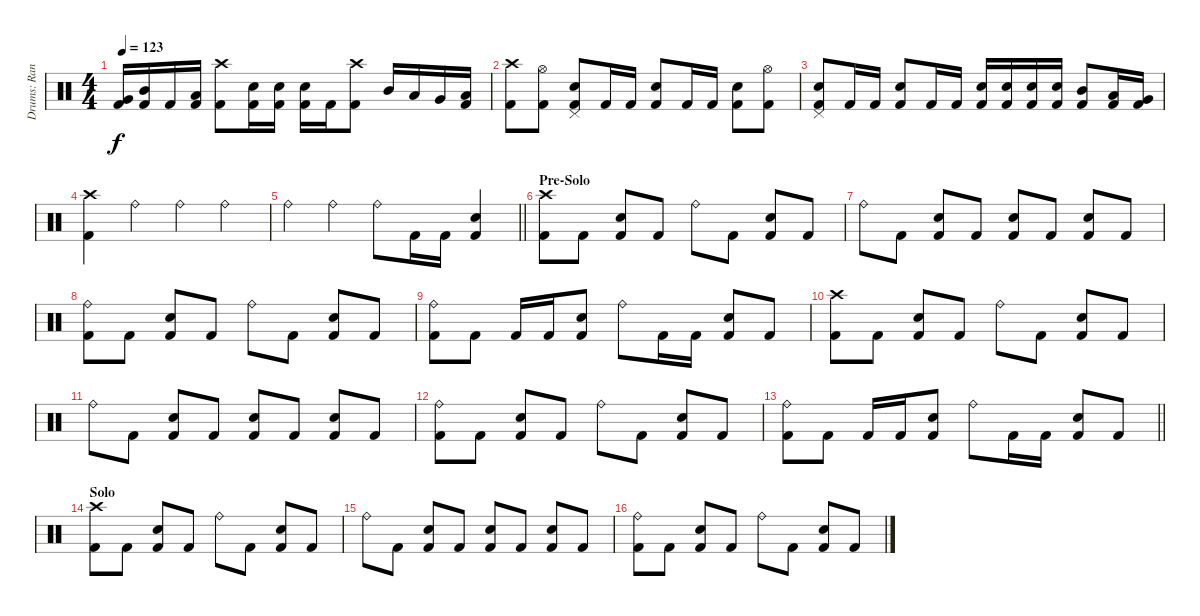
\track ("Drums: Randy" "Drums: Ran") {instrument percussion}
\staff {score}
\articulation defaults
\ts (4 4)
\tempo 123
\clef neutral
\ks c
("Very Low Tom (hit)" "Kick (hit) 2").16{dy f} ("Mid Tom (hit)" "Kick (hit) 2").16 "Kick (hit) 2".16 ("Low Tom (hit)" "Kick (hit) 2").16 ("Crash high (hit)" "Kick (hit) 2").8 ("Snare (hit) 2" "Kick (hit) 2").16 ("Snare (hit) 2" "Kick (hit) 2").16 ("Snare (hit) 2" "Kick (hit) 2").16 "Kick (hit) 2".16 ("Crash high (hit)" "Kick (hit) 2").8 "Mid Tom (hit)".16 "Low Tom (hit)".16 "Very Low Tom (hit)".16 ("Low Floor Tom (hit)" "Kick (hit) 2").16 |
("Crash high (hit)" "Kick (hit) 2").8 ("Hi-Hat (open)" "Kick (hit) 2").8 ("Pedal Hi-Hat (hit)" "Snare (hit) 2" "Kick (hit) 2").8 "Kick (hit) 2".16 "Kick (hit) 2".16 ("Snare (hit) 2" "Kick (hit) 2").8 "Kick (hit) 2".16 "Kick (hit) 2".16 ("Snare (hit) 2" "Kick (hit) 2").8 ("Hi-Hat (open)" "Kick (hit) 2").8 |
("Pedal Hi-Hat (hit)" "Snare (hit) 2" "Kick (hit) 2").8 "Kick (hit) 2".16 "Kick (hit) 2".16 ("Snare (hit) 2" "Kick (hit) 2").8 "Kick (hit) 2".16 "Kick (hit) 2".16 ("Snare (hit) 2" "Kick (hit) 2").16 ("Snare (hit) 2" "Kick (hit) 2").16 ("Snare (hit) 2" "Kick (hit) 2").16 ("Snare (hit) 2" "Kick (hit) 2").16 ("Mid Tom (hit)" "Kick (hit) 2").8 ("Low Tom (hit)" "Kick (hit) 2").16 ("Very Low Tom (hit)" "Kick (hit) 2").16 |
("Crash high (hit)" "Kick (hit) 2").4 "Ride (bell)".4 "Ride (bell)".4 "Ride (bell)".4 |
\barLineRight lightlight "Ride (bell)".4 "Ride (bell)".4 "Ride (bell)".8 "Kick (hit) 2".16 "Kick (hit) 2".16
("Snare (hit) 2" "Kick (hit) 2").4 |
\section ("" "Pre-Solo")
("Crash high (hit)" "Kick (hit) 2").8 "Kick (hit) 2".8 ("Snare (hit) 2" "Kick (hit) 2").8 "Kick (hit) 2".8 "Ride (bell)".8 "Kick (hit) 2".8 ("Snare (hit) 2" "Kick (hit) 2").8 "Kick (hit) 2".8 |
"Ride (bell)".8 "Kick (hit) 2".8 ("Snare (hit) 2" "Kick (hit) 2").8 "Kick (hit) 2".8 ("Snare (hit) 2" "Kick (hit) 2").8 "Kick (hit) 2".8 ("Snare (hit) 2" "Kick (hit) 2").8 "Kick (hit) 2".8 |
("Ride (bell)" "Kick (hit) 2").8 "Kick (hit) 2".8 ("Snare (hit) 2" "Kick (hit) 2").8 "Kick (hit) 2".8 "Ride (bell)".8 "Kick (hit) 2".8 ("Snare (hit) 2" "Kick (hit) 2").8 "Kick (hit) 2".8 |
("Ride (bell)" "Kick (hit) 2").8 "Kick (hit) 2".8 "Kick (hit) 2".16 "Kick (hit) 2".16 ("Snare (hit) 2" "Kick (hit) 2").8 "Ride (bell)".8 "Kick (hit) 2".16 "Kick (hit) 2".16 ("Snare (hit) 2" "Kick (hit) 2").8 "Kick (hit) 2".8 |
("Crash high (hit)" "Kick (hit) 2").8 "Kick (hit) 2".8 ("Snare (hit) 2" "Kick (hit) 2").8 "Kick (hit) 2".8 "Ride (bell)".8 "Kick (hit) 2".8 ("Snare (hit) 2" "Kick (hit) 2").8 "Kick (hit) 2".8 |
"Ride (bell)".8 "Kick (hit) 2".8 ("Snare (hit) 2" "Kick (hit) 2").8 "Kick (hit) 2".8 ("Snare (hit) 2" "Kick (hit) 2").8 "Kick (hit) 2".8 ("Snare (hit) 2" "Kick (hit) 2").8 "Kick (hit) 2".8 |
("Ride (bell)" "Kick (hit) 2").8 "Kick (hit) 2".8 ("Snare (hit) 2" "Kick (hit) 2").8 "Kick (hit) 2".8 "Ride (bell)".8 "Kick (hit) 2".8 ("Snare (hit) 2" "Kick (hit) 2").8 "Kick (hit) 2".8 |
\barLineRight lightlight
("Ride (bell)" "Kick (hit) 2").8 "Kick (hit) 2".8 "Kick (hit) 2".16 "Kick (hit) 2".16 ("Snare (hit) 2" "Kick (hit) 2").8 "Ride (bell)".8 "Kick (hit) 2".16 "Kick (hit) 2".16 ("Snare (hit) 2" "Kick (hit) 2").8 "Kick (hit) 2".8 |
\section ("" "Solo")
("Crash high (hit)" "Kick (hit) 2").8 "Kick (hit) 2".8 ("Snare (hit) 2" "Kick (hit) 2").8 "Kick (hit) 2".8 "Ride (bell)".8 "Kick (hit) 2".8 ("Snare (hit) 2" "Kick (hit) 2").8 "Kick (hit) 2".8 |
"Ride (bell)".8 "Kick (hit) 2".8 ("Snare (hit) 2" "Kick (hit) 2").8 "Kick (hit) 2".8 ("Snare (hit) 2" "Kick (hit) 2").8 "Kick (hit) 2".8 ("Snare (hit) 2" "Kick (hit) 2").8 "Kick (hit) 2".8 |
("Ride (bell)" "Kick (hit) 2").8 "Kick (hit) 2".8 ("Snare (hit) 2" "Kick (hit) 2").8 "Kick (hit) 2".8 "Ride (bell)".8 "Kick (hit) 2".8 ("Snare (hit) 2" "Kick (hit) 2").8 "Kick (hit) 2".8
